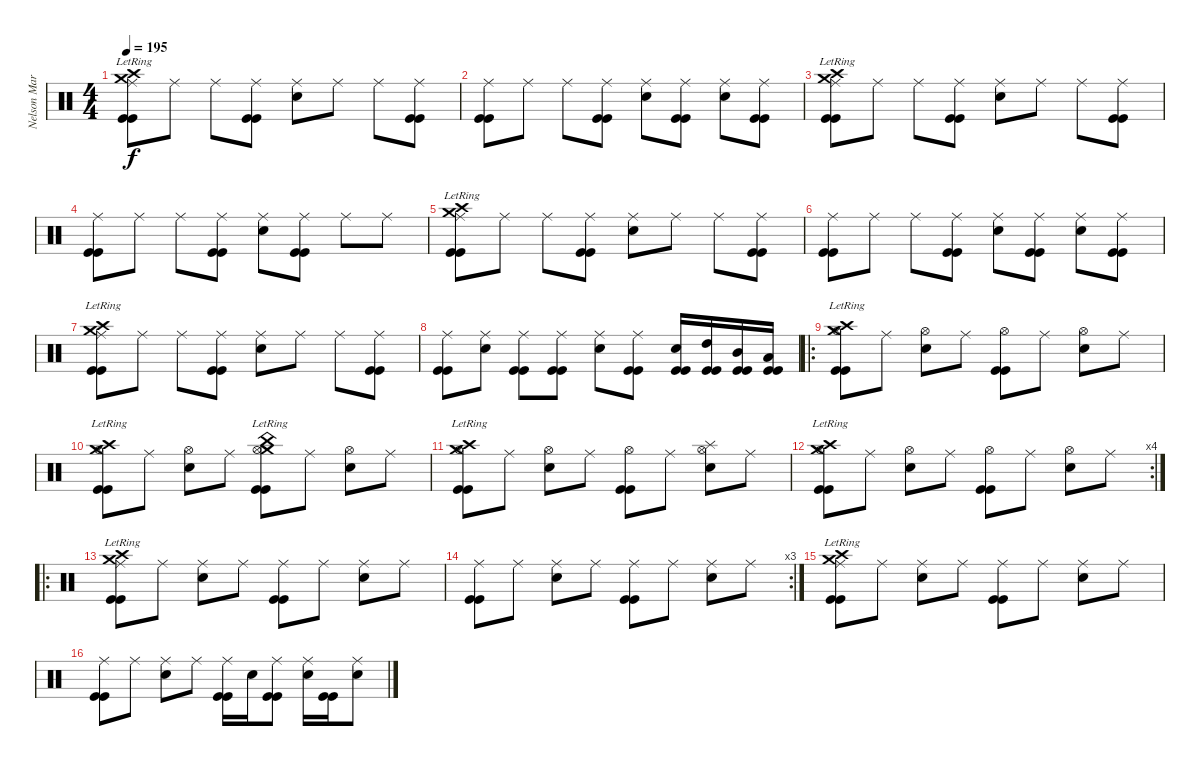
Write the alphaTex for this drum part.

\track ("Nelson Maria" "Nelson Mar") {instrument percussion}
\staff {score}
\articulation defaults
\ts (4 4)
\tempo 195
\clef neutral
\ks c
("Crash high (hit)"{lr} "Crash medium (hit)"{lr} "Ride (middle)" "Kick (hit)" "Kick (hit)").8{dy f} "Ride (middle)".8 "Ride (middle)".8 ("Ride (middle)" "Kick (hit)" "Kick (hit)").8 ("Snare (hit) 2" "Ride (middle)").8 "Ride (middle)".8 "Ride (middle)".8 ("Ride (middle)" "Kick (hit)" "Kick (hit)").8 |
("Ride (middle)" "Kick (hit)" "Kick (hit)").8 "Ride (middle)".8 "Ride (middle)".8 ("Ride (middle)" "Kick (hit)" "Kick (hit)").8 ("Snare (hit) 2" "Ride (middle)").8 ("Ride (middle)" "Kick (hit)" "Kick (hit)").8 ("Snare (hit) 2" "Ride (middle)").8 ("Ride (middle)" "Kick (hit)" "Kick (hit)").8 |
("Crash high (hit)"{lr} "Crash medium (hit)"{lr} "Ride (middle)" "Kick (hit)" "Kick (hit)").8 "Ride (middle)".8 "Ride (middle)".8 ("Ride (middle)" "Kick (hit)" "Kick (hit)").8 ("Snare (hit) 2" "Ride (middle)").8 "Ride (middle)".8 "Ride (middle)".8 ("Ride (middle)" "Kick (hit)" "Kick (hit)").8 |
("Ride (middle)" "Kick (hit)" "Kick (hit)").8 "Ride (middle)".8 "Ride (middle)".8 ("Ride (middle)" "Kick (hit)" "Kick (hit)").8 ("Snare (hit) 2" "Ride (middle)").8 ("Ride (middle)" "Kick (hit)" "Kick (hit)").8 "Ride (middle)".8 "Ride (middle)".8 |
("Crash high (hit)"{lr} "Crash medium (hit)"{lr} "Ride (middle)" "Kick (hit)" "Kick (hit)").8 "Ride (middle)".8 "Ride (middle)".8 ("Ride (middle)" "Kick (hit)" "Kick (hit)").8 ("Snare (hit) 2" "Ride (middle)").8 "Ride (middle)".8 "Ride (middle)".8 ("Ride (middle)" "Kick (hit)" "Kick (hit)").8 |
("Ride (middle)" "Kick (hit)" "Kick (hit)").8 "Ride (middle)".8 "Ride (middle)".8 ("Ride (middle)" "Kick (hit)" "Kick (hit)").8 ("Snare (hit) 2" "Ride (middle)").8 ("Ride (middle)" "Kick (hit)" "Kick (hit)").8 ("Snare (hit) 2" "Ride (middle)").8 ("Ride (middle)" "Kick (hit)" "Kick (hit)").8 |
("Crash high (hit)"{lr} "Crash medium (hit)"{lr} "Ride (middle)" "Kick (hit)" "Kick (hit)").8 "Ride (middle)".8 "Ride (middle)".8 ("Ride (middle)" "Kick (hit)" "Kick (hit)").8 ("Snare (hit) 2" "Ride (middle)").8 "Ride (middle)".8 "Ride (middle)".8 ("Ride (middle)" "Kick (hit)" "Kick (hit)").8 |
("Ride (middle)" "Kick (hit)" "Kick (hit)").8 ("Snare (hit) 2" "Ride (middle)").8 ("Ride (middle)" "Kick (hit)" "Kick (hit)").8 ("Ride (middle)" "Kick (hit)" "Kick (hit)").8 ("Snare (hit) 2" "Ride (middle)").8 ("Ride (middle)" "Kick (hit)" "Kick (hit)").8 ("Snare (hit) 2" "Kick (hit)" "Kick (hit)").16 ("High Tom (hit)" "Kick (hit)" "Kick (hit)").16 ("Mid Tom (hit)" "Kick (hit)" "Kick (hit)").16 ("Low Tom (hit)" "Kick (hit)" "Kick (hit)").16 |
\ro
("Crash high (hit)"{lr} "Crash medium (hit)"{lr} "Hi-Hat (open)" "Kick (hit)" "Kick (hit)").8 "Ride (middle)".8 ("Snare (hit) 2" "Hi-Hat (open)").8 "Ride (middle)".8 ("Hi-Hat (open)" "Kick (hit)" "Kick (hit)").8 "Ride (middle)".8 ("Snare (hit) 2" "Hi-Hat (open)").8 "Ride (middle)".8 |
("Crash high (hit)"{lr} "Crash medium (hit)"{lr} "Hi-Hat (open)" "Kick (hit)" "Kick (hit)").8 "Ride (middle)".8 ("Snare (hit) 2" "Hi-Hat (open)").8 "Ride (middle)".8 ("Crash medium (hit)"{lr} "China (hit)"{lr} "Hi-Hat (open)" "Kick (hit)" "Kick (hit)").8 "Ride (middle)".8 ("Snare (hit) 2" "Hi-Hat (open)").8 "Ride (middle)".8 |
("Crash high (hit)"{lr} "Crash medium (hit)"{lr} "Hi-Hat (open)" "Kick (hit)" "Kick (hit)").8 "Ride (middle)".8 ("Snare (hit) 2" "Hi-Hat (open)").8 "Ride (middle)".8 ("Hi-Hat (open)" "Kick (hit)" "Kick (hit)").8 "Ride (middle)".8 ("Splash (hit)" "Snare (hit) 2" "Hi-Hat (open)").8 "Ride (middle)".8 |
\rc 4
("Crash high (hit)"{lr} "Crash medium (hit)"{lr} "Hi-Hat (open)" "Kick (hit)" "Kick (hit)").8 "Ride (middle)".8 ("Snare (hit) 2" "Hi-Hat (open)").8 "Ride (middle)".8 ("Hi-Hat (open)" "Kick (hit)" "Kick (hit)").8 "Ride (middle)".8 ("Snare (hit) 2" "Hi-Hat (open)").8 "Ride (middle)".8 |
\ro
("Crash high (hit)"{lr} "Crash medium (hit)"{lr} "Ride (middle)" "Kick (hit)" "Kick (hit)").8 "Ride (middle)".8 ("Snare (hit) 2" "Ride (middle)").8 "Ride (middle)".8 ("Ride (middle)" "Kick (hit)" "Kick (hit)").8 "Ride (middle)".8 ("Snare (hit) 2" "Ride (middle)").8 "Ride (middle)".8 |
\rc 3
("Ride (middle)" "Kick (hit)" "Kick (hit)").8 "Ride (middle)".8 ("Snare (hit) 2" "Ride (middle)").8 "Ride (middle)".8 ("Ride (middle)" "Kick (hit)" "Kick (hit)").8 "Ride (middle)".8 ("Snare (hit) 2" "Ride (middle)").8 "Ride (middle)".8 |
("Crash high (hit)"{lr} "Crash medium (hit)"{lr} "Ride (middle)" "Kick (hit)" "Kick (hit)").8 "Ride (middle)".8 ("Snare (hit) 2" "Ride (middle)").8 "Ride (middle)".8 ("Ride (middle)" "Kick (hit)" "Kick (hit)").8 "Ride (middle)".8 ("Snare (hit) 2" "Ride (middle)").8 "Ride (middle)".8 |
("Ride (middle)" "Kick (hit)" "Kick (hit)").8 "Ride (middle)".8 ("Snare (hit) 2" "Ride (middle)").8 "Ride (middle)".8 ("Ride (middle)" "Kick (hit)" "Kick (hit)").16 "Snare (hit) 2".16 ("Ride (middle)" "Kick (hit)" "Kick (hit)").8 ("Snare (hit) 2" "Ride (middle)").16 ("Kick (hit)" "Kick (hit)").16 ("Snare (hit) 2" "Ride (middle)").8
